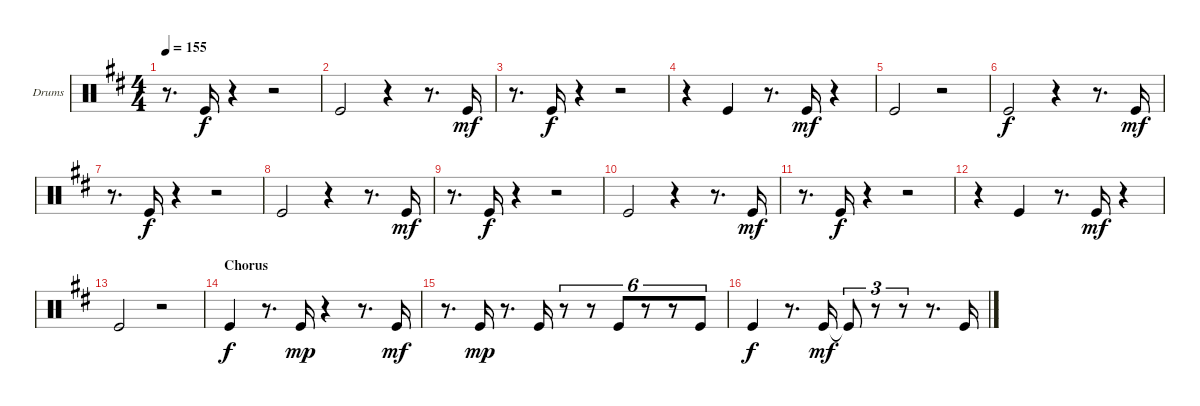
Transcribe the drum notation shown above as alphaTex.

\bracketExtendMode groupsimilarinstruments
\firstSystemTrackNameOrientation horizontal
\otherSystemsTrackNameOrientation horizontal
\track ("Kick" "Drums") {instrument percussion}
\staff {score}
\articulation defaults
\ts (4 4)
\tempo 155
\clef neutral
\ks d
r.8{d dy mf} "Kick (hit)".16{dy f} r.4 r.2 |
"Kick (hit)".2 r.4 r.8{d} "Kick (hit)".16{dy mf} |
r.8{d} "Kick (hit)".16{dy f} r.4 r.2 |
r.4 "Kick (hit)".4 r.8{d} "Kick (hit)".16{dy mf} r.4 |
"Kick (hit)".2 r.2 |
"Kick (hit)".2{dy f} r.4 r.8{d} "Kick (hit)".16{dy mf} |
r.8{d} "Kick (hit)".16{dy f} r.4 r.2 |
"Kick (hit)".2 r.4 r.8{d} "Kick (hit)".16{dy mf} |
r.8{d} "Kick (hit)".16{dy f} r.4 r.2 |
"Kick (hit)".2 r.4 r.8{d} "Kick (hit)".16{dy mf} |
r.8{d} "Kick (hit)".16{dy f} r.4 r.2 |
r.4 "Kick (hit)".4 r.8{d} "Kick (hit)".16{dy mf} r.4 |
"Kick (hit)".2 r.2 |
\section ("" "Chorus")
"Kick (hit)".4{dy f} r.8{d} "Kick (hit)".16{dy mp} r.4 r.8{d} "Kick (hit)".16{dy mf} |
r.8{d} "Kick (hit)".16{dy mp} r.8{d} "Kick (hit)".16 r.8{tu (6 4)} r.8{tu (6 4)} "Kick (hit)".8{tu (6 4)} r.8{tu (6 4)} r.8{tu (6 4)} "Kick (hit)".8{tu (6 4)} |
"Kick (hit)".4{dy f} r.8{d} "Kick (hit)".16{dy mf} "Kick (hit)"{t}.8{tu (3 2)} r.8{tu (3 2)} r.8{tu (3 2)} r.8{d} "Kick (hit)".16
